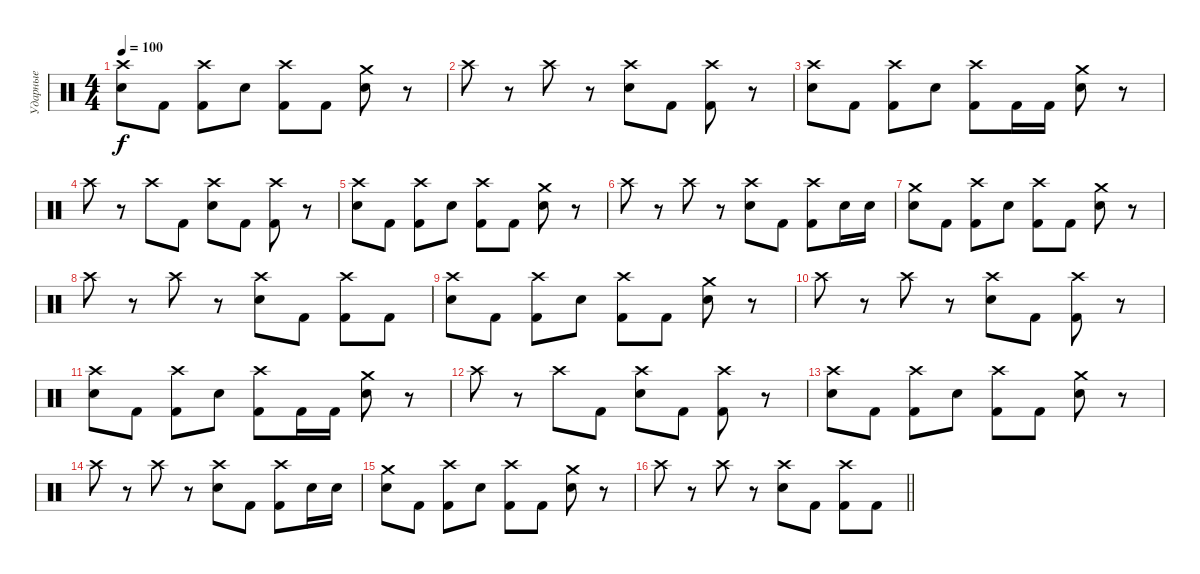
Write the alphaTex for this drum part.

\track ("Ударные" "Ударные") {instrument percussion}
\staff {score}
\articulation defaults
\ts (4 4)
\section ("" "")
\tempo 100
\clef neutral
\ks c
("Crash high (hit)" "Electric Snare (hit)").8{dy f} "Kick (hit) 2".8 ("Crash high (hit)" "Kick (hit) 2").8 "Electric Snare (hit)".8 ("Crash high (hit)" "Kick (hit) 2").8 "Kick (hit) 2".8 ("Crash medium (hit)" "Electric Snare (hit)").8 r.8 |
"Crash high (hit)".8 r.8 "Crash high (hit)".8 r.8 ("Crash high (hit)" "Electric Snare (hit)").8 "Kick (hit) 2".8 ("Crash high (hit)" "Kick (hit) 2").8 r.8 |
("Crash high (hit)" "Electric Snare (hit)").8 "Kick (hit) 2".8 ("Crash high (hit)" "Kick (hit) 2").8 "Electric Snare (hit)".8 ("Crash high (hit)" "Kick (hit) 2").8 "Kick (hit) 2".16 "Kick (hit) 2".16 ("Crash medium (hit)" "Electric Snare (hit)").8 r.8 |
"Crash high (hit)".8 r.8 "Crash high (hit)".8 "Kick (hit) 2".8 ("Crash high (hit)" "Electric Snare (hit)").8 "Kick (hit) 2".8 ("Crash high (hit)" "Kick (hit) 2").8 r.8 |
("Crash high (hit)" "Electric Snare (hit)").8 "Kick (hit) 2".8 ("Crash high (hit)" "Kick (hit) 2").8 "Electric Snare (hit)".8 ("Crash high (hit)" "Kick (hit) 2").8 "Kick (hit) 2".8 ("Crash medium (hit)" "Electric Snare (hit)").8 r.8 |
"Crash high (hit)".8 r.8 "Crash high (hit)".8 r.8 ("Crash high (hit)" "Electric Snare (hit)").8 "Kick (hit) 2".8 ("Crash high (hit)" "Kick (hit) 2").8 "Electric Snare (hit)".16 "Electric Snare (hit)".16 |
("Crash medium (hit)" "Electric Snare (hit)").8 "Kick (hit) 2".8 ("Crash high (hit)" "Kick (hit) 2").8 "Electric Snare (hit)".8 ("Crash high (hit)" "Kick (hit) 2").8 "Kick (hit) 2".8 ("Crash medium (hit)" "Electric Snare (hit)").8 r.8 |
"Crash high (hit)".8 r.8 "Crash high (hit)".8 r.8 ("Crash high (hit)" "Electric Snare (hit)").8 "Kick (hit) 2".8 ("Crash high (hit)" "Kick (hit) 2").8 "Kick (hit) 2".8 |
("Crash high (hit)" "Electric Snare (hit)").8 "Kick (hit) 2".8 ("Crash high (hit)" "Kick (hit) 2").8 "Electric Snare (hit)".8 ("Crash high (hit)" "Kick (hit) 2").8 "Kick (hit) 2".8 ("Crash medium (hit)" "Electric Snare (hit)").8 r.8 |
"Crash high (hit)".8 r.8 "Crash high (hit)".8 r.8 ("Crash high (hit)" "Electric Snare (hit)").8 "Kick (hit) 2".8 ("Crash high (hit)" "Kick (hit) 2").8 r.8 |
("Crash high (hit)" "Electric Snare (hit)").8 "Kick (hit) 2".8 ("Crash high (hit)" "Kick (hit) 2").8 "Electric Snare (hit)".8 ("Crash high (hit)" "Kick (hit) 2").8 "Kick (hit) 2".16 "Kick (hit) 2".16 ("Crash medium (hit)" "Electric Snare (hit)").8 r.8 |
"Crash high (hit)".8 r.8 "Crash high (hit)".8 "Kick (hit) 2".8 ("Crash high (hit)" "Electric Snare (hit)").8 "Kick (hit) 2".8 ("Crash high (hit)" "Kick (hit) 2").8 r.8 |
("Crash high (hit)" "Electric Snare (hit)").8 "Kick (hit) 2".8 ("Crash high (hit)" "Kick (hit) 2").8 "Electric Snare (hit)".8 ("Crash high (hit)" "Kick (hit) 2").8 "Kick (hit) 2".8 ("Crash medium (hit)" "Electric Snare (hit)").8 r.8 |
"Crash high (hit)".8 r.8 "Crash high (hit)".8 r.8 ("Crash high (hit)" "Electric Snare (hit)").8 "Kick (hit) 2".8 ("Crash high (hit)" "Kick (hit) 2").8 "Electric Snare (hit)".16 "Electric Snare (hit)".16 |
("Crash medium (hit)" "Electric Snare (hit)").8 "Kick (hit) 2".8 ("Crash high (hit)" "Kick (hit) 2").8 "Electric Snare (hit)".8 ("Crash high (hit)" "Kick (hit) 2").8 "Kick (hit) 2".8 ("Crash medium (hit)" "Electric Snare (hit)").8 r.8 |
\barLineRight lightlight "Crash high (hit)".8
r.8 "Crash high (hit)".8 r.8 ("Crash high (hit)" "Electric Snare (hit)").8 "Kick (hit) 2".8 ("Crash high (hit)" "Kick (hit) 2").8 "Kick (hit) 2".8
